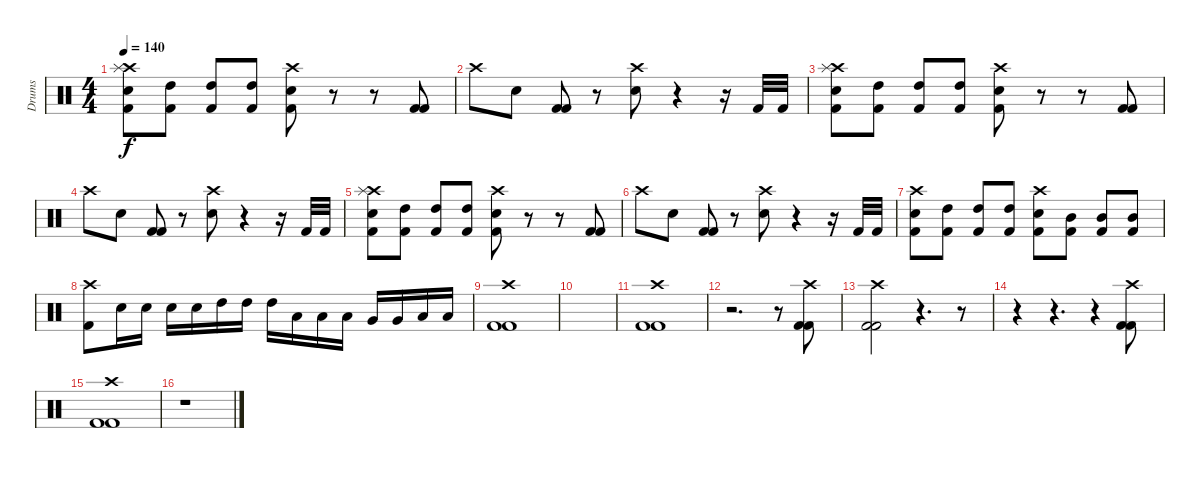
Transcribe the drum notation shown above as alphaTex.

\track ("Drums" "Drums") {instrument percussion}
\staff {score}
\articulation defaults
\ts (4 4)
\tempo 140
\clef neutral
\ks c
("Crash high (hit)" "Splash (hit)" "Electric Snare (hit)" "Kick (hit) 2").8{dy f} ("High Tom (hit)" "Kick (hit) 2").8 ("High Tom (hit)" "Kick (hit) 2").8 ("High Tom (hit)" "Kick (hit) 2").8 ("Crash high (hit)" "Electric Snare (hit)" "Kick (hit) 2").8 r.8 r.8 ("Kick (hit) 2" "Kick (hit) 2").8 |
"Crash high (hit)".8 "Electric Snare (hit)".8 ("Kick (hit) 2" "Kick (hit) 2").8 r.8 ("Crash high (hit)" "Electric Snare (hit)").8 r.4 r.16 "Kick (hit) 2".32 "Kick (hit) 2".32 |
("Crash high (hit)" "Splash (hit)" "Electric Snare (hit)" "Kick (hit) 2").8 ("High Tom (hit)" "Kick (hit) 2").8 ("High Tom (hit)" "Kick (hit) 2").8 ("High Tom (hit)" "Kick (hit) 2").8 ("Crash high (hit)" "Electric Snare (hit)" "Kick (hit) 2").8 r.8 r.8 ("Kick (hit) 2" "Kick (hit) 2").8 |
"Crash high (hit)".8 "Electric Snare (hit)".8 ("Kick (hit) 2" "Kick (hit) 2").8 r.8 ("Crash high (hit)" "Electric Snare (hit)").8 r.4 r.16 "Kick (hit) 2".32 "Kick (hit) 2".32 |
("Crash high (hit)" "Splash (hit)" "Electric Snare (hit)" "Kick (hit) 2").8 ("High Tom (hit)" "Kick (hit) 2").8 ("High Tom (hit)" "Kick (hit) 2").8 ("High Tom (hit)" "Kick (hit) 2").8 ("Crash high (hit)" "Electric Snare (hit)" "Kick (hit) 2").8 r.8 r.8 ("Kick (hit) 2" "Kick (hit) 2").8 |
"Crash high (hit)".8 "Electric Snare (hit)".8 ("Kick (hit) 2" "Kick (hit) 2").8 r.8 ("Crash high (hit)" "Electric Snare (hit)").8 r.4 r.16 "Kick (hit) 2".32 "Kick (hit) 2".32 |
("Crash high (hit)" "Electric Snare (hit)" "Kick (hit) 2").8 ("High Tom (hit)" "Kick (hit) 2").8 ("High Tom (hit)" "Kick (hit) 2").8 ("High Tom (hit)" "Kick (hit) 2").8 ("Crash high (hit)" "Electric Snare (hit)" "Kick (hit) 2").8 ("Mid Tom (hit)" "Kick (hit) 2").8 ("Mid Tom (hit)" "Kick (hit) 2").8 ("Mid Tom (hit)" "Kick (hit) 2").8 |
("Crash high (hit)" "Kick (hit) 2").8 "Electric Snare (hit)".16 "Electric Snare (hit)".16 "Electric Snare (hit)".16 "Electric Snare (hit)".16 "High Tom (hit)".16 "High Tom (hit)".16 "High Tom (hit)".16 "Low Tom (hit)".16 "Low Tom (hit)".16 "Low Tom (hit)".16 "Very Low Tom (hit)".16 "Very Low Tom (hit)".16 "Low Floor Tom (hit)".16 "Low Floor Tom (hit)".16 |
("Crash high (hit)" "Kick (hit) 2" "Kick (hit) 2").1 |
|
("Crash high (hit)" "Kick (hit) 2" "Kick (hit) 2").1 |
r.2{d} r.8 ("Crash high (hit)" "Kick (hit) 2" "Kick (hit) 2").8 |
("Crash high (hit)" "Kick (hit) 2" "Kick (hit) 2").2 r.4{d} r.8 |
r.4 r.4{d} r.4 ("Crash high (hit)" "Kick (hit) 2" "Kick (hit) 2").8 |
("Crash high (hit)" "Kick (hit) 2" "Kick (hit) 2").1 |
r.1
